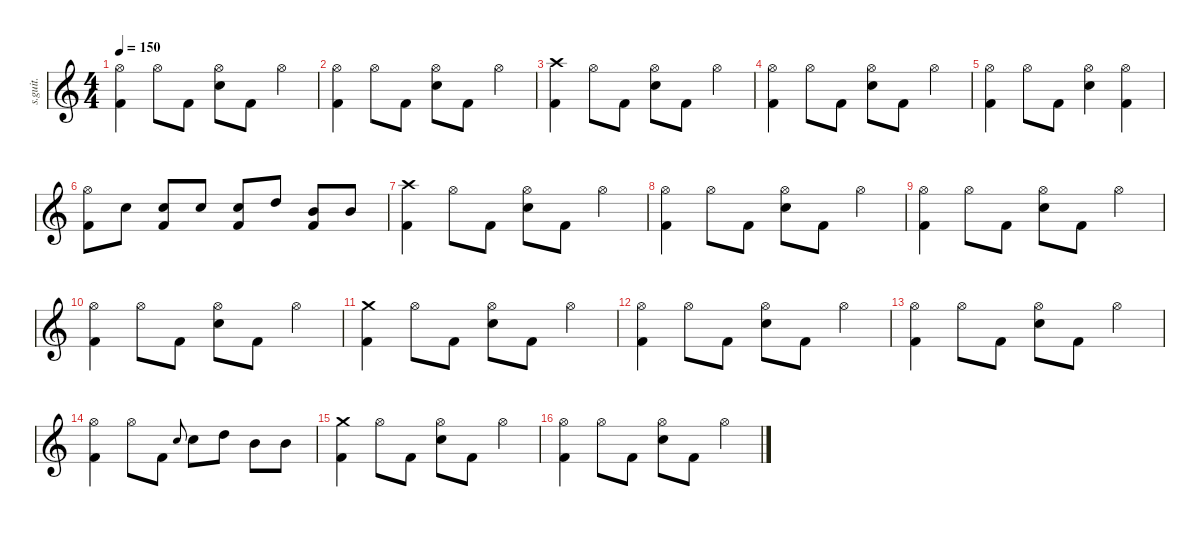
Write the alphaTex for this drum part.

\defaultSystemsLayout 4
\hideDynamics
\bracketExtendMode nobrackets
\track ("Christoph Schneider" "s.guit.") {instrument percussion}
\staff {score}
\articulation defaults
\ts (4 4)
\tempo 150
\clef g2
\ks c
("Kick (hit) 2" "Hi-Hat (open)").4{lyrics (0 "") lyrics (1 "") lyrics (2 "") lyrics (3 "") lyrics (4 "") dy ff} "Hi-Hat (open)".8{lyrics (0 "") lyrics (1 "") lyrics (2 "") lyrics (3 "") lyrics (4 "")} "Kick (hit) 2".8{lyrics (0 "") lyrics (1 "") lyrics (2 "") lyrics (3 "") lyrics (4 "")} ("Snare (hit) 2" "Hi-Hat (open)").8{lyrics (0 "") lyrics (1 "") lyrics (2 "") lyrics (3 "") lyrics (4 "")} "Kick (hit) 2".8{lyrics (0 "") lyrics (1 "") lyrics (2 "") lyrics (3 "") lyrics (4 "")} "Hi-Hat (open)".4{lyrics (0 "") lyrics (1 "") lyrics (2 "") lyrics (3 "") lyrics (4 "")} |
("Kick (hit) 2" "Hi-Hat (open)").4{lyrics (0 "") lyrics (1 "") lyrics (2 "") lyrics (3 "") lyrics (4 "")} "Hi-Hat (open)".8{lyrics (0 "") lyrics (1 "") lyrics (2 "") lyrics (3 "") lyrics (4 "")} "Kick (hit) 2".8{lyrics (0 "") lyrics (1 "") lyrics (2 "") lyrics (3 "") lyrics (4 "")} ("Snare (hit) 2" "Hi-Hat (open)").8{lyrics (0 "") lyrics (1 "") lyrics (2 "") lyrics (3 "") lyrics (4 "")} "Kick (hit) 2".8{lyrics (0 "") lyrics (1 "") lyrics (2 "") lyrics (3 "") lyrics (4 "")} "Hi-Hat (open)".4{lyrics (0 "") lyrics (1 "") lyrics (2 "") lyrics (3 "") lyrics (4 "")} |
("Kick (hit) 2" "Crash high (hit)").4{lyrics (0 "") lyrics (1 "") lyrics (2 "") lyrics (3 "") lyrics (4 "")} "Hi-Hat (open)".8{lyrics (0 "") lyrics (1 "") lyrics (2 "") lyrics (3 "") lyrics (4 "")} "Kick (hit) 2".8{lyrics (0 "") lyrics (1 "") lyrics (2 "") lyrics (3 "") lyrics (4 "")} ("Snare (hit) 2" "Hi-Hat (open)").8{lyrics (0 "") lyrics (1 "") lyrics (2 "") lyrics (3 "") lyrics (4 "")} "Kick (hit) 2".8{lyrics (0 "") lyrics (1 "") lyrics (2 "") lyrics (3 "") lyrics (4 "")} "Hi-Hat (open)".4{lyrics (0 "") lyrics (1 "") lyrics (2 "") lyrics (3 "") lyrics (4 "")} |
("Kick (hit) 2" "Hi-Hat (open)").4{lyrics (0 "") lyrics (1 "") lyrics (2 "") lyrics (3 "") lyrics (4 "")} "Hi-Hat (open)".8{lyrics (0 "") lyrics (1 "") lyrics (2 "") lyrics (3 "") lyrics (4 "")} "Kick (hit) 2".8{lyrics (0 "") lyrics (1 "") lyrics (2 "") lyrics (3 "") lyrics (4 "")} ("Snare (hit) 2" "Hi-Hat (open)").8{lyrics (0 "") lyrics (1 "") lyrics (2 "") lyrics (3 "") lyrics (4 "")} "Kick (hit) 2".8{lyrics (0 "") lyrics (1 "") lyrics (2 "") lyrics (3 "") lyrics (4 "")} "Hi-Hat (open)".4{lyrics (0 "") lyrics (1 "") lyrics (2 "") lyrics (3 "") lyrics (4 "")} |
("Kick (hit) 2" "Hi-Hat (open)").4{lyrics (0 "") lyrics (1 "") lyrics (2 "") lyrics (3 "") lyrics (4 "")} "Hi-Hat (open)".8{lyrics (0 "") lyrics (1 "") lyrics (2 "") lyrics (3 "") lyrics (4 "")} "Kick (hit) 2".8{lyrics (0 "") lyrics (1 "") lyrics (2 "") lyrics (3 "") lyrics (4 "")} ("Snare (hit) 2" "Hi-Hat (open)").4{lyrics (0 "") lyrics (1 "") lyrics (2 "") lyrics (3 "") lyrics (4 "")} ("Kick (hit) 2" "Hi-Hat (open)").4{lyrics (0 "") lyrics (1 "") lyrics (2 "") lyrics (3 "") lyrics (4 "")} |
("Hi-Hat (open)" "Kick (hit) 2").8{lyrics (0 "") lyrics (1 "") lyrics (2 "") lyrics (3 "") lyrics (4 "")} "Snare (hit) 2".8{lyrics (0 "") lyrics (1 "") lyrics (2 "") lyrics (3 "") lyrics (4 "")} ("Snare (hit) 2" "Kick (hit) 2").8{lyrics (0 "") lyrics (1 "") lyrics (2 "") lyrics (3 "") lyrics (4 "")} "Snare (hit) 2".8{lyrics (0 "") lyrics (1 "") lyrics (2 "") lyrics (3 "") lyrics (4 "")} ("Snare (hit) 2" "Kick (hit) 2").8{lyrics (0 "") lyrics (1 "") lyrics (2 "") lyrics (3 "") lyrics (4 "")} "High Tom (hit)".8{lyrics (0 "") lyrics (1 "") lyrics (2 "") lyrics (3 "") lyrics (4 "")} ("Kick (hit) 2" "Mid Tom (hit)").8{lyrics (0 "") lyrics (1 "") lyrics (2 "") lyrics (3 "") lyrics (4 "")} "Mid Tom (hit)".8{lyrics (0 "") lyrics (1 "") lyrics (2 "") lyrics (3 "") lyrics (4 "")} |
("Kick (hit) 2" "Crash high (hit)").4{lyrics (0 "") lyrics (1 "") lyrics (2 "") lyrics (3 "") lyrics (4 "")} "Hi-Hat (open)".8{lyrics (0 "") lyrics (1 "") lyrics (2 "") lyrics (3 "") lyrics (4 "")} "Kick (hit) 2".8{lyrics (0 "") lyrics (1 "") lyrics (2 "") lyrics (3 "") lyrics (4 "")} ("Snare (hit) 2" "Hi-Hat (open)").8{lyrics (0 "") lyrics (1 "") lyrics (2 "") lyrics (3 "") lyrics (4 "")} "Kick (hit) 2".8{lyrics (0 "") lyrics (1 "") lyrics (2 "") lyrics (3 "") lyrics (4 "")} "Hi-Hat (open)".4{lyrics (0 "") lyrics (1 "") lyrics (2 "") lyrics (3 "") lyrics (4 "")} |
("Kick (hit) 2" "Hi-Hat (open)").4{lyrics (0 "") lyrics (1 "") lyrics (2 "") lyrics (3 "") lyrics (4 "")} "Hi-Hat (open)".8{lyrics (0 "") lyrics (1 "") lyrics (2 "") lyrics (3 "") lyrics (4 "")} "Kick (hit) 2".8{lyrics (0 "") lyrics (1 "") lyrics (2 "") lyrics (3 "") lyrics (4 "")} ("Snare (hit) 2" "Hi-Hat (open)").8{lyrics (0 "") lyrics (1 "") lyrics (2 "") lyrics (3 "") lyrics (4 "")} "Kick (hit) 2".8{lyrics (0 "") lyrics (1 "") lyrics (2 "") lyrics (3 "") lyrics (4 "")} "Hi-Hat (open)".4{lyrics (0 "") lyrics (1 "") lyrics (2 "") lyrics (3 "") lyrics (4 "")} |
("Kick (hit) 2" "Hi-Hat (open)").4{lyrics (0 "") lyrics (1 "") lyrics (2 "") lyrics (3 "") lyrics (4 "")} "Hi-Hat (open)".8{lyrics (0 "") lyrics (1 "") lyrics (2 "") lyrics (3 "") lyrics (4 "")} "Kick (hit) 2".8{lyrics (0 "") lyrics (1 "") lyrics (2 "") lyrics (3 "") lyrics (4 "")} ("Snare (hit) 2" "Hi-Hat (open)").8{lyrics (0 "") lyrics (1 "") lyrics (2 "") lyrics (3 "") lyrics (4 "")} "Kick (hit) 2".8{lyrics (0 "") lyrics (1 "") lyrics (2 "") lyrics (3 "") lyrics (4 "")} "Hi-Hat (open)".4{lyrics (0 "") lyrics (1 "") lyrics (2 "") lyrics (3 "") lyrics (4 "")} |
("Kick (hit) 2" "Hi-Hat (open)").4{lyrics (0 "") lyrics (1 "") lyrics (2 "") lyrics (3 "") lyrics (4 "")} "Hi-Hat (open)".8{lyrics (0 "") lyrics (1 "") lyrics (2 "") lyrics (3 "") lyrics (4 "")} "Kick (hit) 2".8{lyrics (0 "") lyrics (1 "") lyrics (2 "") lyrics (3 "") lyrics (4 "")} ("Snare (hit) 2" "Hi-Hat (open)").8{lyrics (0 "") lyrics (1 "") lyrics (2 "") lyrics (3 "") lyrics (4 "")} "Kick (hit) 2".8{lyrics (0 "") lyrics (1 "") lyrics (2 "") lyrics (3 "") lyrics (4 "")} "Hi-Hat (open)".4{lyrics (0 "") lyrics (1 "") lyrics (2 "") lyrics (3 "") lyrics (4 "")} |
("Kick (hit) 2" "Crash medium (hit)").4{lyrics (0 "") lyrics (1 "") lyrics (2 "") lyrics (3 "") lyrics (4 "")} "Hi-Hat (open)".8{lyrics (0 "") lyrics (1 "") lyrics (2 "") lyrics (3 "") lyrics (4 "")} "Kick (hit) 2".8{lyrics (0 "") lyrics (1 "") lyrics (2 "") lyrics (3 "") lyrics (4 "")} ("Snare (hit) 2" "Hi-Hat (open)").8{lyrics (0 "") lyrics (1 "") lyrics (2 "") lyrics (3 "") lyrics (4 "")} "Kick (hit) 2".8{lyrics (0 "") lyrics (1 "") lyrics (2 "") lyrics (3 "") lyrics (4 "")} "Hi-Hat (open)".4{lyrics (0 "") lyrics (1 "") lyrics (2 "") lyrics (3 "") lyrics (4 "")} |
("Kick (hit) 2" "Hi-Hat (open)").4{lyrics (0 "") lyrics (1 "") lyrics (2 "") lyrics (3 "") lyrics (4 "")} "Hi-Hat (open)".8{lyrics (0 "") lyrics (1 "") lyrics (2 "") lyrics (3 "") lyrics (4 "")} "Kick (hit) 2".8{lyrics (0 "") lyrics (1 "") lyrics (2 "") lyrics (3 "") lyrics (4 "")} ("Snare (hit) 2" "Hi-Hat (open)").8{lyrics (0 "") lyrics (1 "") lyrics (2 "") lyrics (3 "") lyrics (4 "")} "Kick (hit) 2".8{lyrics (0 "") lyrics (1 "") lyrics (2 "") lyrics (3 "") lyrics (4 "")} "Hi-Hat (open)".4{lyrics (0 "") lyrics (1 "") lyrics (2 "") lyrics (3 "") lyrics (4 "")} |
("Kick (hit) 2" "Hi-Hat (open)").4{lyrics (0 "") lyrics (1 "") lyrics (2 "") lyrics (3 "") lyrics (4 "")} "Hi-Hat (open)".8{lyrics (0 "") lyrics (1 "") lyrics (2 "") lyrics (3 "") lyrics (4 "")} "Kick (hit) 2".8{lyrics (0 "") lyrics (1 "") lyrics (2 "") lyrics (3 "") lyrics (4 "")} ("Snare (hit) 2" "Hi-Hat (open)").8{lyrics (0 "") lyrics (1 "") lyrics (2 "") lyrics (3 "") lyrics (4 "")} "Kick (hit) 2".8{lyrics (0 "") lyrics (1 "") lyrics (2 "") lyrics (3 "") lyrics (4 "")} "Hi-Hat (open)".4{lyrics (0 "") lyrics (1 "") lyrics (2 "") lyrics (3 "") lyrics (4 "")} |
("Hi-Hat (open)" "Kick (hit) 2").4{lyrics (0 "") lyrics (1 "") lyrics (2 "") lyrics (3 "") lyrics (4 "")} "Hi-Hat (open)".8{lyrics (0 "") lyrics (1 "") lyrics (2 "") lyrics (3 "") lyrics (4 "")} "Kick (hit) 2".8{lyrics (0 "") lyrics (1 "") lyrics (2 "") lyrics (3 "") lyrics (4 "")} "Snare (hit) 2".8{lyrics (0 "") lyrics (1 "") lyrics (2 "") lyrics (3 "") lyrics (4 "") gr onbeat} "Snare (hit) 2".8{lyrics (0 "") lyrics (1 "") lyrics (2 "") lyrics (3 "") lyrics (4 "")} "High Tom (hit)".8{lyrics (0 "") lyrics (1 "") lyrics (2 "") lyrics (3 "") lyrics (4 "")} "Mid Tom (hit)".8{lyrics (0 "") lyrics (1 "") lyrics (2 "") lyrics (3 "") lyrics (4 "")} "Mid Tom (hit)".8{lyrics (0 "") lyrics (1 "") lyrics (2 "") lyrics (3 "") lyrics (4 "")} |
("Crash medium (hit)" "Kick (hit) 2").4{lyrics (0 "") lyrics (1 "") lyrics (2 "") lyrics (3 "") lyrics (4 "")} "Hi-Hat (open)".8{lyrics (0 "") lyrics (1 "") lyrics (2 "") lyrics (3 "") lyrics (4 "")} "Kick (hit) 2".8{lyrics (0 "") lyrics (1 "") lyrics (2 "") lyrics (3 "") lyrics (4 "")} ("Snare (hit) 2" "Hi-Hat (open)").8{lyrics (0 "") lyrics (1 "") lyrics (2 "") lyrics (3 "") lyrics (4 "")} "Kick (hit) 2".8{lyrics (0 "") lyrics (1 "") lyrics (2 "") lyrics (3 "") lyrics (4 "")} "Hi-Hat (open)".4{lyrics (0 "") lyrics (1 "") lyrics (2 "") lyrics (3 "") lyrics (4 "")} |
("Kick (hit) 2" "Hi-Hat (open)").4{lyrics (0 "") lyrics (1 "") lyrics (2 "") lyrics (3 "") lyrics (4 "")} "Hi-Hat (open)".8{lyrics (0 "") lyrics (1 "") lyrics (2 "") lyrics (3 "") lyrics (4 "")} "Kick (hit) 2".8{lyrics (0 "") lyrics (1 "") lyrics (2 "") lyrics (3 "") lyrics (4 "")} ("Snare (hit) 2" "Hi-Hat (open)").8{lyrics (0 "") lyrics (1 "") lyrics (2 "") lyrics (3 "") lyrics (4 "")} "Kick (hit) 2".8{lyrics (0 "") lyrics (1 "") lyrics (2 "") lyrics (3 "") lyrics (4 "")} "Hi-Hat (open)".4{lyrics (0 "") lyrics (1 "") lyrics (2 "") lyrics (3 "") lyrics (4 "")}
